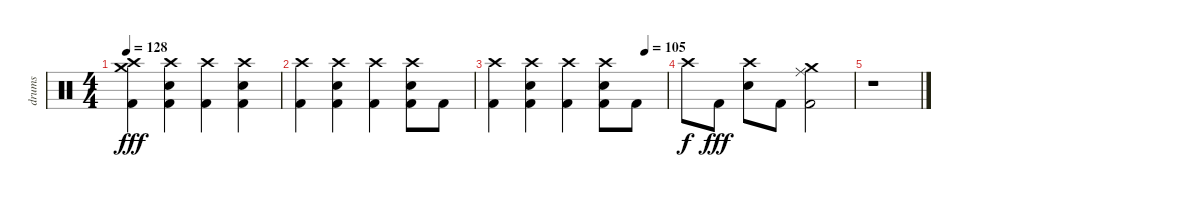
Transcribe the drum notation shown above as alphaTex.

\track ("drums" "drums") {instrument percussion}
\staff {score}
\articulation defaults
\ts (4 4)
\tempo 128
\clef neutral
\ks c
("Crash medium (hit)" "Crash high (hit)" "Kick (hit) 2").4{dy fff} ("Crash high (hit)" "Electric Snare (hit)" "Kick (hit) 2").4 ("Crash high (hit)" "Kick (hit) 2").4 ("Crash high (hit)" "Electric Snare (hit)" "Kick (hit) 2").4 |
("Crash high (hit)" "Kick (hit) 2").4 ("Crash high (hit)" "Electric Snare (hit)" "Kick (hit) 2").4 ("Crash high (hit)" "Kick (hit) 2").4 ("Crash high (hit)" "Electric Snare (hit)" "Kick (hit) 2").8 "Kick (hit) 2".8 |
\tempo (105 0.875)
("Crash high (hit)" "Kick (hit) 2").4 ("Crash high (hit)" "Electric Snare (hit)" "Kick (hit) 2").4 ("Crash high (hit)" "Kick (hit) 2").4 ("Crash high (hit)" "Electric Snare (hit)" "Kick (hit) 2").8 "Kick (hit) 2".8 |
"Crash high (hit)".8{dy f} "Kick (hit) 2".8{dy fff} ("Crash high (hit)" "Electric Snare (hit)").8 "Kick (hit) 2".8 ("Crash medium (hit)" "Ride (middle)" "Kick (hit) 2").2 |
r.1
